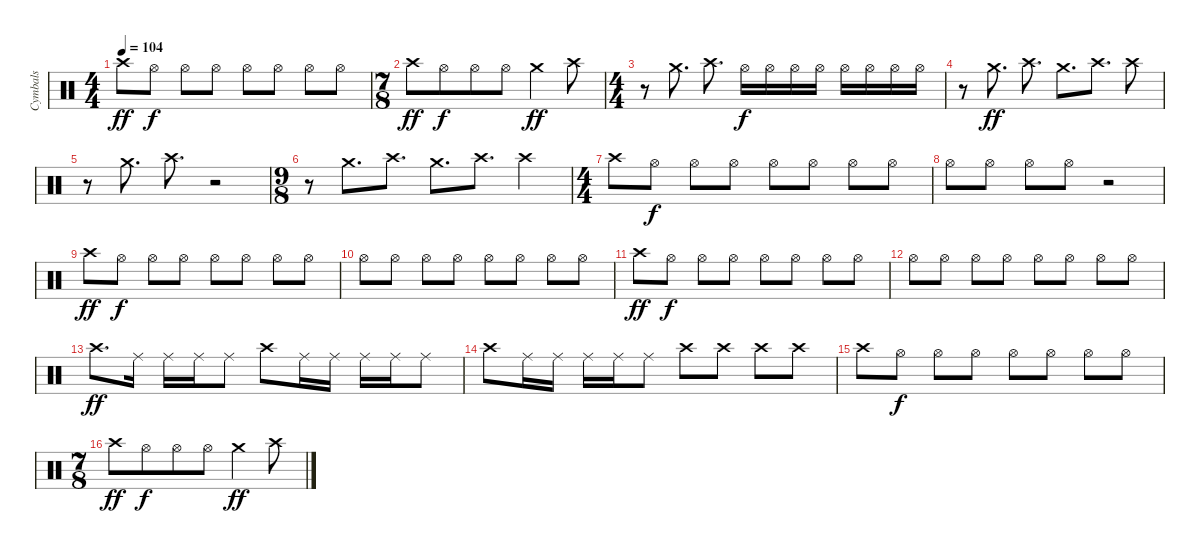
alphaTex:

\track ("Cymbals" "Cymbals") {instrument percussion}
\staff {score}
\articulation defaults
\ts (4 4)
\tempo 104
\clef neutral
\ks c "Crash high (hit)".8{dy ff} "Hi-Hat (open)".8{dy f} "Hi-Hat (open)".8 "Hi-Hat (open)".8 "Hi-Hat (open)".8 "Hi-Hat (open)".8 "Hi-Hat (open)".8 "Hi-Hat (open)".8
|
\ts (7 8)
"Crash high (hit)".8{dy ff} "Hi-Hat (open)".8{dy f} "Hi-Hat (open)".8 "Hi-Hat (open)".8 "Crash medium (hit)".4{dy ff} "Crash high (hit)".8 |
\ts (4 4)
r.8 "Crash medium (hit)".8{d} "Crash high (hit)".8{d} "Hi-Hat (open)".16{dy f} "Hi-Hat (open)".16 "Hi-Hat (open)".16 "Hi-Hat (open)".16 "Hi-Hat (open)".16 "Hi-Hat (open)".16 "Hi-Hat (open)".16 "Hi-Hat (open)".16 |
r.8 "Crash medium (hit)".8{d dy ff} "Crash high (hit)".8{d} "Crash medium (hit)".8{d} "Crash high (hit)".8{d} "Crash high (hit)".8 |
r.8 "Crash medium (hit)".8{d} "Crash high (hit)".8{d} r.2 |
\ts (9 8)
r.8 "Crash medium (hit)".8{d} "Crash high (hit)".8{d} "Crash medium (hit)".8{d} "Crash high (hit)".8{d} "Crash high (hit)".4 |
\ts (4 4)
"Crash high (hit)".8 "Hi-Hat (open)".8{dy f} "Hi-Hat (open)".8 "Hi-Hat (open)".8 "Hi-Hat (open)".8 "Hi-Hat (open)".8 "Hi-Hat (open)".8 "Hi-Hat (open)".8 |
"Hi-Hat (open)".8 "Hi-Hat (open)".8 "Hi-Hat (open)".8 "Hi-Hat (open)".8 r.2 |
"Crash high (hit)".8{dy ff} "Hi-Hat (open)".8{dy f} "Hi-Hat (open)".8 "Hi-Hat (open)".8 "Hi-Hat (open)".8 "Hi-Hat (open)".8 "Hi-Hat (open)".8 "Hi-Hat (open)".8 |
"Hi-Hat (open)".8 "Hi-Hat (open)".8 "Hi-Hat (open)".8 "Hi-Hat (open)".8 "Hi-Hat (open)".8 "Hi-Hat (open)".8 "Hi-Hat (open)".8 "Hi-Hat (open)".8 |
"Crash high (hit)".8{dy ff} "Hi-Hat (open)".8{dy f} "Hi-Hat (open)".8 "Hi-Hat (open)".8 "Hi-Hat (open)".8 "Hi-Hat (open)".8 "Hi-Hat (open)".8 "Hi-Hat (open)".8 |
"Hi-Hat (open)".8 "Hi-Hat (open)".8 "Hi-Hat (open)".8 "Hi-Hat (open)".8 "Hi-Hat (open)".8 "Hi-Hat (open)".8 "Hi-Hat (open)".8 "Hi-Hat (open)".8 |
"Crash high (hit)".8{d dy ff} "Ride (middle)".16 "Ride (middle)".16 "Ride (middle)".16 "Ride (middle)".8 "Crash high (hit)".8 "Ride (middle)".16 "Ride (middle)".16 "Ride (middle)".16 "Ride (middle)".16 "Ride (middle)".8 |
"Crash high (hit)".8 "Ride (middle)".16 "Ride (middle)".16 "Ride (middle)".16 "Ride (middle)".16 "Ride (middle)".8 "Crash high (hit)".8 "Crash high (hit)".8 "Crash high (hit)".8 "Crash high (hit)".8 |
"Crash high (hit)".8 "Hi-Hat (open)".8{dy f} "Hi-Hat (open)".8 "Hi-Hat (open)".8 "Hi-Hat (open)".8 "Hi-Hat (open)".8 "Hi-Hat (open)".8 "Hi-Hat (open)".8 |
\ts (7 8)
"Crash high (hit)".8{dy ff} "Hi-Hat (open)".8{dy f} "Hi-Hat (open)".8 "Hi-Hat (open)".8 "Crash medium (hit)".4{dy ff} "Crash high (hit)".8
